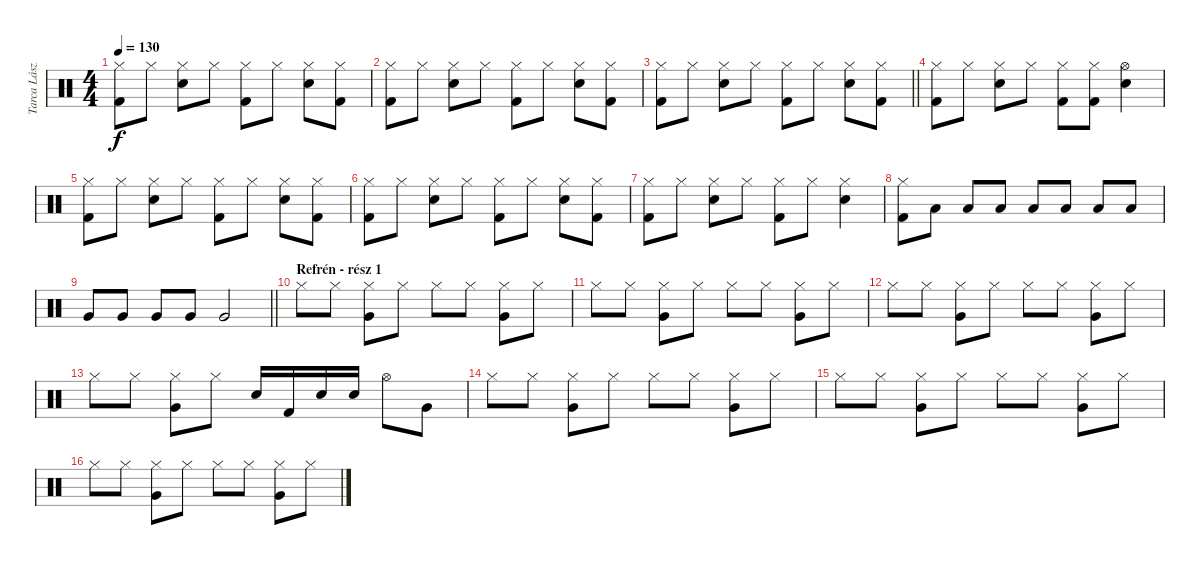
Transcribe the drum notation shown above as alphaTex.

\track ("Tarca László - dob" "Tarca Lász") {instrument percussion}
\staff {score}
\articulation defaults
\ts (4 4)
\tempo 130
\clef neutral
\ks c
("Hi-Hat (closed)" "Kick (hit) 2").8{dy f} "Hi-Hat (closed)".8 ("Hi-Hat (closed)" "Snare (hit) 2").8 "Hi-Hat (closed)".8 ("Hi-Hat (closed)" "Kick (hit) 2").8 "Hi-Hat (closed)".8 ("Hi-Hat (closed)" "Snare (hit) 2").8 ("Hi-Hat (closed)" "Kick (hit) 2").8 |
("Hi-Hat (closed)" "Kick (hit) 2").8 "Hi-Hat (closed)".8 ("Hi-Hat (closed)" "Snare (hit) 2").8 "Hi-Hat (closed)".8 ("Hi-Hat (closed)" "Kick (hit) 2").8 "Hi-Hat (closed)".8 ("Hi-Hat (closed)" "Snare (hit) 2").8 ("Hi-Hat (closed)" "Kick (hit) 2").8 |
\barLineRight lightlight
("Hi-Hat (closed)" "Kick (hit) 2").8 "Hi-Hat (closed)".8 ("Hi-Hat (closed)" "Snare (hit) 2").8 "Hi-Hat (closed)".8 ("Hi-Hat (closed)" "Kick (hit) 2").8 "Hi-Hat (closed)".8 ("Hi-Hat (closed)" "Snare (hit) 2").8 ("Hi-Hat (closed)" "Kick (hit) 2").8 |
("Hi-Hat (closed)" "Kick (hit) 2").8 "Hi-Hat (closed)".8 ("Hi-Hat (closed)" "Snare (hit) 2").8 "Hi-Hat (closed)".8 ("Hi-Hat (closed)" "Kick (hit) 2").8 ("Hi-Hat (closed)" "Kick (hit) 2").8 ("Hi-Hat (open)" "Snare (hit) 2").4 |
("Hi-Hat (closed)" "Kick (hit) 2").8 "Hi-Hat (closed)".8 ("Hi-Hat (closed)" "Snare (hit) 2").8 "Hi-Hat (closed)".8 ("Hi-Hat (closed)" "Kick (hit) 2").8 "Hi-Hat (closed)".8 ("Hi-Hat (closed)" "Snare (hit) 2").8 ("Hi-Hat (closed)" "Kick (hit) 2").8 |
("Hi-Hat (closed)" "Kick (hit) 2").8 "Hi-Hat (closed)".8 ("Hi-Hat (closed)" "Snare (hit) 2").8 "Hi-Hat (closed)".8 ("Hi-Hat (closed)" "Kick (hit) 2").8 "Hi-Hat (closed)".8 ("Hi-Hat (closed)" "Snare (hit) 2").8 ("Hi-Hat (closed)" "Kick (hit) 2").8 |
("Hi-Hat (closed)" "Kick (hit) 2").8 "Hi-Hat (closed)".8 ("Hi-Hat (closed)" "Snare (hit) 2").8 "Hi-Hat (closed)".8 ("Hi-Hat (closed)" "Kick (hit) 2").8 "Hi-Hat (closed)".8 ("Hi-Hat (closed)" "Snare (hit) 2").4 |
("Hi-Hat (closed)" "Kick (hit) 2").8 "Low Tom (hit)".8 "Low Tom (hit)".8 "Low Tom (hit)".8 "Low Tom (hit)".8 "Low Tom (hit)".8 "Low Tom (hit)".8 "Low Tom (hit)".8 |
\barLineRight lightlight "Very Low Tom (hit)".8 "Very Low Tom (hit)".8 "Very Low Tom (hit)".8 "Very Low Tom (hit)".8 "Very Low Tom (hit)".2
|
\section ("" "Refrén - rész 1")
"Hi-Hat (closed)".8 "Hi-Hat (closed)".8 ("Hi-Hat (closed)" "Very Low Tom (hit)").8 "Hi-Hat (closed)".8 "Hi-Hat (closed)".8 "Hi-Hat (closed)".8 ("Hi-Hat (closed)" "Very Low Tom (hit)").8 "Hi-Hat (closed)".8 |
"Hi-Hat (closed)".8 "Hi-Hat (closed)".8 ("Hi-Hat (closed)" "Very Low Tom (hit)").8 "Hi-Hat (closed)".8 "Hi-Hat (closed)".8 "Hi-Hat (closed)".8 ("Hi-Hat (closed)" "Very Low Tom (hit)").8 "Hi-Hat (closed)".8 |
"Hi-Hat (closed)".8 "Hi-Hat (closed)".8 ("Hi-Hat (closed)" "Very Low Tom (hit)").8 "Hi-Hat (closed)".8 "Hi-Hat (closed)".8 "Hi-Hat (closed)".8 ("Hi-Hat (closed)" "Very Low Tom (hit)").8 "Hi-Hat (closed)".8 |
"Hi-Hat (closed)".8 "Hi-Hat (closed)".8 ("Hi-Hat (closed)" "Very Low Tom (hit)").8 "Hi-Hat (closed)".8 "Snare (hit) 2".16 "Kick (hit) 2".16 "Snare (hit) 2".16 "Snare (hit) 2".16 "Hi-Hat (open)".8 "Very Low Tom (hit)".8 |
"Hi-Hat (closed)".8 "Hi-Hat (closed)".8 ("Hi-Hat (closed)" "Very Low Tom (hit)").8 "Hi-Hat (closed)".8 "Hi-Hat (closed)".8 "Hi-Hat (closed)".8 ("Hi-Hat (closed)" "Very Low Tom (hit)").8 "Hi-Hat (closed)".8 |
"Hi-Hat (closed)".8 "Hi-Hat (closed)".8 ("Hi-Hat (closed)" "Very Low Tom (hit)").8 "Hi-Hat (closed)".8 "Hi-Hat (closed)".8 "Hi-Hat (closed)".8 ("Hi-Hat (closed)" "Very Low Tom (hit)").8 "Hi-Hat (closed)".8 |
"Hi-Hat (closed)".8 "Hi-Hat (closed)".8 ("Hi-Hat (closed)" "Very Low Tom (hit)").8 "Hi-Hat (closed)".8 "Hi-Hat (closed)".8 "Hi-Hat (closed)".8 ("Hi-Hat (closed)" "Very Low Tom (hit)").8 "Hi-Hat (closed)".8
